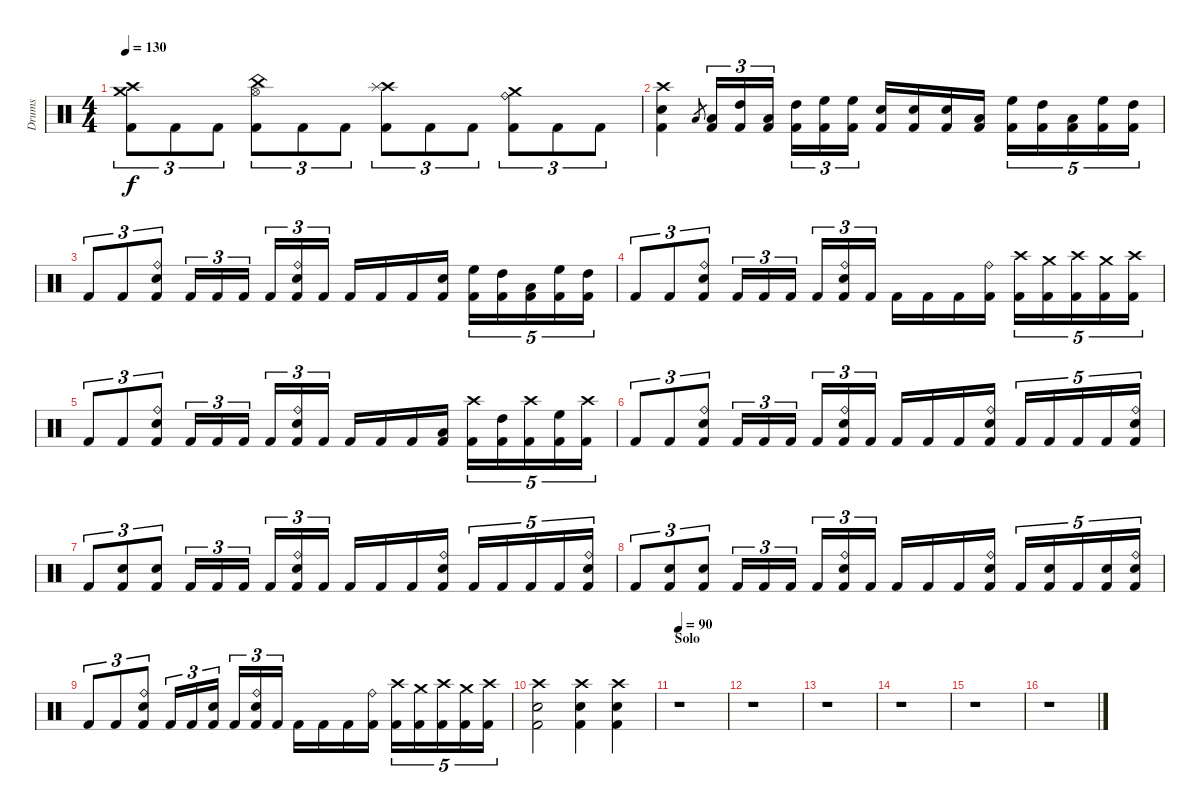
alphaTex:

\track ("Drums" "Drums") {instrument percussion}
\staff {score}
\articulation defaults
\ts (4 4)
\tempo 130
\clef neutral
\ks c
("Crash high (hit)" "Crash medium (hit)" "Kick (hit) 2").8{tu (3 2) dy f} "Kick (hit) 2".8{tu (3 2)} "Kick (hit) 2".8{tu (3 2)} ("Hi-Hat (open)" "China (hit)" "Kick (hit) 2").8{tu (3 2)} "Kick (hit) 2".8{tu (3 2)} "Kick (hit) 2".8{tu (3 2)} ("Crash high (hit)" "Splash (hit)" "Kick (hit) 2").8{tu (3 2)} "Kick (hit) 2".8{tu (3 2)} "Kick (hit) 2".8{tu (3 2)} ("Crash medium (hit)" "Ride (bell)" "Kick (hit) 2").8{tu (3 2)} "Kick (hit) 2".8{tu (3 2)} "Kick (hit) 2".8{tu (3 2)} |
("Crash high (hit)" "Snare (hit) 2" "Kick (hit) 2").4 "Low Tom (hit)".8{gr} ("Low Tom (hit)" "Kick (hit) 2").16{tu (3 2)} ("High Tom (hit)" "Kick (hit) 2").16{tu (3 2)} ("Low Tom (hit)" "Kick (hit) 2").16{tu (3 2)} ("High Tom (hit)" "Kick (hit) 2").16{tu (3 2)} ("High Floor Tom (hit)" "Kick (hit) 2").16{tu (3 2)} ("High Floor Tom (hit)" "Kick (hit) 2").16{tu (3 2)} ("Snare (hit) 2" "Kick (hit) 2").16 ("Snare (hit) 2" "Kick (hit) 2").16 ("Snare (hit) 2" "Kick (hit) 2").16 ("Low Tom (hit)" "Kick (hit) 2").16 ("High Floor Tom (hit)" "Kick (hit) 2").16{tu (5 4)} ("High Tom (hit)" "Kick (hit) 2").16{tu (5 4)} ("Low Tom (hit)" "Kick (hit) 2").16{tu (5 4)} ("High Floor Tom (hit)" "Kick (hit) 2").16{tu (5 4)} ("High Tom (hit)" "Kick (hit) 2").16{tu (5 4)} |
"Kick (hit) 2".8{tu (3 2)} "Kick (hit) 2".8{tu (3 2)} ("Ride (bell)" "Snare (hit) 2" "Kick (hit) 2").8{tu (3 2)} "Kick (hit) 2".16{tu (3 2)} "Kick (hit) 2".16{tu (3 2)} "Kick (hit) 2".16{tu (3 2)} "Kick (hit) 2".16{tu (3 2)} ("Ride (bell)" "Snare (hit) 2" "Kick (hit) 2").16{tu (3 2)} "Kick (hit) 2".16{tu (3 2)} "Kick (hit) 2".16 "Kick (hit) 2".16 "Kick (hit) 2".16 ("Snare (hit) 2" "Kick (hit) 2").16 ("High Floor Tom (hit)" "Kick (hit) 2").16{tu (5 4)} ("High Tom (hit)" "Kick (hit) 2").16{tu (5 4)} ("Low Tom (hit)" "Kick (hit) 2").16{tu (5 4)} ("High Floor Tom (hit)" "Kick (hit) 2").16{tu (5 4)} ("High Tom (hit)" "Kick (hit) 2").16{tu (5 4)} |
"Kick (hit) 2".8{tu (3 2)} "Kick (hit) 2".8{tu (3 2)} ("Ride (bell)" "Snare (hit) 2" "Kick (hit) 2").8{tu (3 2)} "Kick (hit) 2".16{tu (3 2)} "Kick (hit) 2".16{tu (3 2)} "Kick (hit) 2".16{tu (3 2)} "Kick (hit) 2".16{tu (3 2)} ("Ride (bell)" "Snare (hit) 2" "Kick (hit) 2").16{tu (3 2)} "Kick (hit) 2".16{tu (3 2)} "Kick (hit) 2".16 "Kick (hit) 2".16 "Kick (hit) 2".16 ("Ride (bell)" "Kick (hit) 2").16 ("Crash high (hit)" "Kick (hit) 2").16{tu (5 4)} ("Crash medium (hit)" "Kick (hit) 2").16{tu (5 4)} ("Crash high (hit)" "Kick (hit) 2").16{tu (5 4)} ("Crash medium (hit)" "Kick (hit) 2").16{tu (5 4)} ("Crash high (hit)" "Kick (hit) 2").16{tu (5 4)} |
"Kick (hit) 2".8{tu (3 2)} "Kick (hit) 2".8{tu (3 2)} ("Ride (bell)" "Snare (hit) 2" "Kick (hit) 2").8{tu (3 2)} "Kick (hit) 2".16{tu (3 2)} "Kick (hit) 2".16{tu (3 2)} "Kick (hit) 2".16{tu (3 2)} "Kick (hit) 2".16{tu (3 2)} ("Ride (bell)" "Snare (hit) 2" "Kick (hit) 2").16{tu (3 2)} "Kick (hit) 2".16{tu (3 2)} "Kick (hit) 2".16 "Kick (hit) 2".16 "Kick (hit) 2".16 ("Low Tom (hit)" "Kick (hit) 2").16 ("Crash high (hit)" "Kick (hit) 2").16{tu (5 4)} ("High Tom (hit)" "Kick (hit) 2").16{tu (5 4)} ("Crash high (hit)" "Kick (hit) 2").16{tu (5 4)} ("High Floor Tom (hit)" "Kick (hit) 2").16{tu (5 4)} ("Crash high (hit)" "Kick (hit) 2").16{tu (5 4)} |
"Kick (hit) 2".8{tu (3 2)} "Kick (hit) 2".8{tu (3 2)} ("Ride (bell)" "Snare (hit) 2" "Kick (hit) 2").8{tu (3 2)} "Kick (hit) 2".16{tu (3 2)} "Kick (hit) 2".16{tu (3 2)} "Kick (hit) 2".16{tu (3 2)} "Kick (hit) 2".16{tu (3 2)} ("Ride (bell)" "Snare (hit) 2" "Kick (hit) 2").16{tu (3 2)} "Kick (hit) 2".16{tu (3 2)} "Kick (hit) 2".16 "Kick (hit) 2".16 "Kick (hit) 2".16 ("Ride (bell)" "Snare (hit) 2" "Kick (hit) 2").16 "Kick (hit) 2".16{tu (5 4)} "Kick (hit) 2".16{tu (5 4)} "Kick (hit) 2".16{tu (5 4)} "Kick (hit) 2".16{tu (5 4)} ("Ride (bell)" "Snare (hit) 2" "Kick (hit) 2").16{tu (5 4)} |
"Kick (hit) 2".8{tu (3 2)} ("Snare (hit) 2" "Kick (hit) 2").8{tu (3 2)} ("Snare (hit) 2" "Kick (hit) 2").8{tu (3 2)} "Kick (hit) 2".16{tu (3 2)} "Kick (hit) 2".16{tu (3 2)} "Kick (hit) 2".16{tu (3 2)} "Kick (hit) 2".16{tu (3 2)} ("Ride (bell)" "Snare (hit) 2" "Kick (hit) 2").16{tu (3 2)} "Kick (hit) 2".16{tu (3 2)} "Kick (hit) 2".16 "Kick (hit) 2".16 "Kick (hit) 2".16 ("Ride (bell)" "Snare (hit) 2" "Kick (hit) 2").16 "Kick (hit) 2".16{tu (5 4)} "Kick (hit) 2".16{tu (5 4)} "Kick (hit) 2".16{tu (5 4)} "Kick (hit) 2".16{tu (5 4)} ("Ride (bell)" "Snare (hit) 2" "Kick (hit) 2").16{tu (5 4)} |
"Kick (hit) 2".8{tu (3 2)} ("Snare (hit) 2" "Kick (hit) 2").8{tu (3 2)} ("Snare (hit) 2" "Kick (hit) 2").8{tu (3 2)} "Kick (hit) 2".16{tu (3 2)} "Kick (hit) 2".16{tu (3 2)} "Kick (hit) 2".16{tu (3 2)} "Kick (hit) 2".16{tu (3 2)} ("Ride (bell)" "Snare (hit) 2" "Kick (hit) 2").16{tu (3 2)} "Kick (hit) 2".16{tu (3 2)} "Kick (hit) 2".16 "Kick (hit) 2".16 "Kick (hit) 2".16 ("Ride (bell)" "Snare (hit) 2" "Kick (hit) 2").16 "Kick (hit) 2".16{tu (5 4)} ("Snare (hit) 2" "Kick (hit) 2").16{tu (5 4)} "Kick (hit) 2".16{tu (5 4)} ("Snare (hit) 2" "Kick (hit) 2").16{tu (5 4)} ("Ride (bell)" "Snare (hit) 2" "Kick (hit) 2").16{tu (5 4)} |
"Kick (hit) 2".8{tu (3 2)} "Kick (hit) 2".8{tu (3 2)} ("Ride (bell)" "Snare (hit) 2" "Kick (hit) 2").8{tu (3 2)} "Kick (hit) 2".16{tu (3 2)} "Kick (hit) 2".16{tu (3 2)} ("Snare (hit) 2" "Kick (hit) 2").16{tu (3 2)} "Kick (hit) 2".16{tu (3 2)} ("Ride (bell)" "Snare (hit) 2" "Kick (hit) 2").16{tu (3 2)} "Kick (hit) 2".16{tu (3 2)} "Kick (hit) 2".16 "Kick (hit) 2".16 "Kick (hit) 2".16 ("Ride (bell)" "Kick (hit) 2").16 ("Crash high (hit)" "Kick (hit) 2").16{tu (5 4)} ("Crash medium (hit)" "Kick (hit) 2").16{tu (5 4)} ("Crash high (hit)" "Kick (hit) 2").16{tu (5 4)} ("Crash medium (hit)" "Kick (hit) 2").16{tu (5 4)} ("Crash high (hit)" "Kick (hit) 2").16{tu (5 4)} |
("Crash high (hit)" "Snare (hit) 2" "Kick (hit) 2").2 ("Crash high (hit)" "Snare (hit) 2" "Kick (hit) 2").4 ("Crash high (hit)" "Snare (hit) 2" "Kick (hit) 2").4 |
\section ("" "Solo")
\tempo 90
r.1 |
r.1 |
r.1 |
r.1 |
r.1 |
r.1
